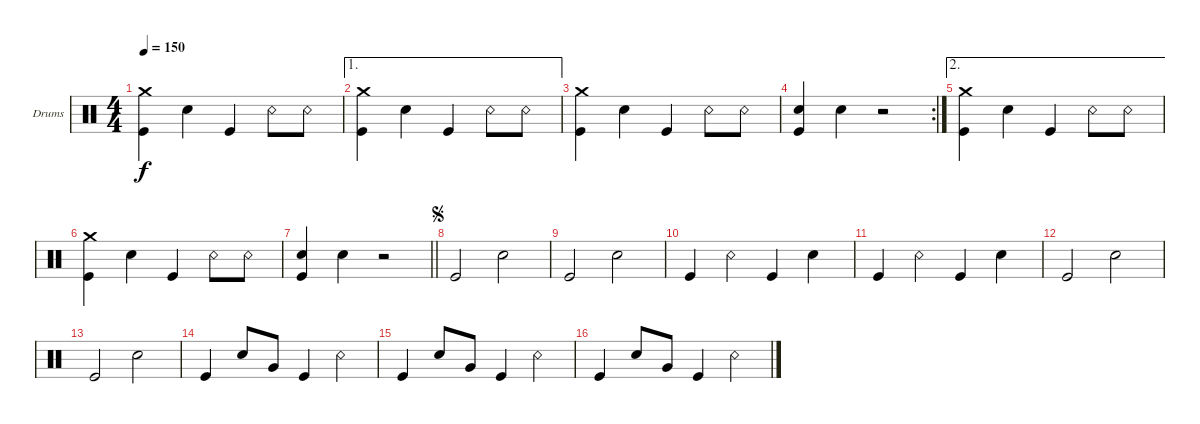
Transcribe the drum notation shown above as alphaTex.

\bracketExtendMode groupsimilarinstruments
\firstSystemTrackNameOrientation horizontal
\otherSystemsTrackNameOrientation horizontal
\track ("Drumkit" "Drums") {instrument percussion}
\staff {score}
\articulation defaults
\ts (4 4)
\tempo 150
\clef neutral
\scale
0.333333
\ks c
("Kick (hit)" "Crash medium (hit)").4{dy f} "Snare (hit) 2".4 "Kick (hit)".4 "Snare (rim shot)".8 "Snare (rim shot)".8 |
\ae 1
\scale
0.333333 ("Kick (hit)" "Crash medium (hit)").4 "Snare (hit) 2".4 "Kick (hit)".4 "Snare (rim shot)".8 "Snare (rim shot)".8 |
\scale
0.321839 ("Kick (hit)" "Crash medium (hit)").4 "Snare (hit) 2".4 "Kick (hit)".4 "Snare (rim shot)".8 "Snare (rim shot)".8 |
\rc 2
\scale
0.356322 ("Kick (hit)" "Snare (hit) 2").4 "Snare (hit) 2".4 r.2 |
\ae 2
\scale
0.321839 ("Kick (hit)" "Crash medium (hit)").4 "Snare (hit) 2".4 "Kick (hit)".4 "Snare (rim shot)".8 "Snare (rim shot)".8 |
\scale
0.333333 ("Kick (hit)" "Crash medium (hit)").4 "Snare (hit) 2".4 "Kick (hit)".4 "Snare (rim shot)".8 "Snare (rim shot)".8 |
\scale
0.333333
\barLineRight lightlight
("Kick (hit)" "Snare (hit) 2").4 "Snare (hit) 2".4 r.2 |
\jump segno
\scale
0.333333 "Kick (hit)".2 "Snare (hit) 2".2 |
\scale
0.333333 "Kick (hit)".2 "Snare (hit) 2".2 |
\scale
0.333333 "Kick (hit)".4 "Snare (rim shot)".4 "Kick (hit)".4 "Snare (hit) 2".4 |
\scale
0.333333 "Kick (hit)".4 "Snare (rim shot)".4 "Kick (hit)".4 "Snare (hit) 2".4 |
\scale
0.333333 "Kick (hit)".2 "Snare (hit) 2".2 |
\scale
0.333333 "Kick (hit)".2 "Snare (hit) 2".2 |
\scale
0.333333 "Kick (hit)".4 "Snare (hit) 2".8 "Very Low Tom (hit)".8 "Kick (hit)".4 "Snare (rim shot)".4 |
\scale
0.333333 "Kick (hit)".4 "Snare (hit) 2".8 "Very Low Tom (hit)".8 "Kick (hit)".4 "Snare (rim shot)".4 |
\scale
0.333333 "Kick (hit)".4 "Snare (hit) 2".8 "Very Low Tom (hit)".8 "Kick (hit)".4 "Snare (rim shot)".4
